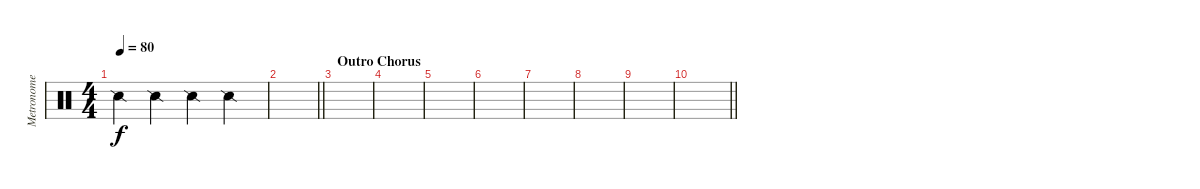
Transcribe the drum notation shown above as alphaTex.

\track ("Metronome" "Metronome") {instrument percussion}
\staff {score}
\articulation defaults
\ts (4 4)
\tempo 80
\clef neutral
\ks c "Snare (side stick) 2".4{dy f} "Snare (side stick) 2".4 "Snare (side stick) 2".4 "Snare (side stick) 2".4
|
\barLineRight lightlight
|
\section ("" "Outro Chorus")
|
|
|
|
|
|
|
\barLineRight lightlight
